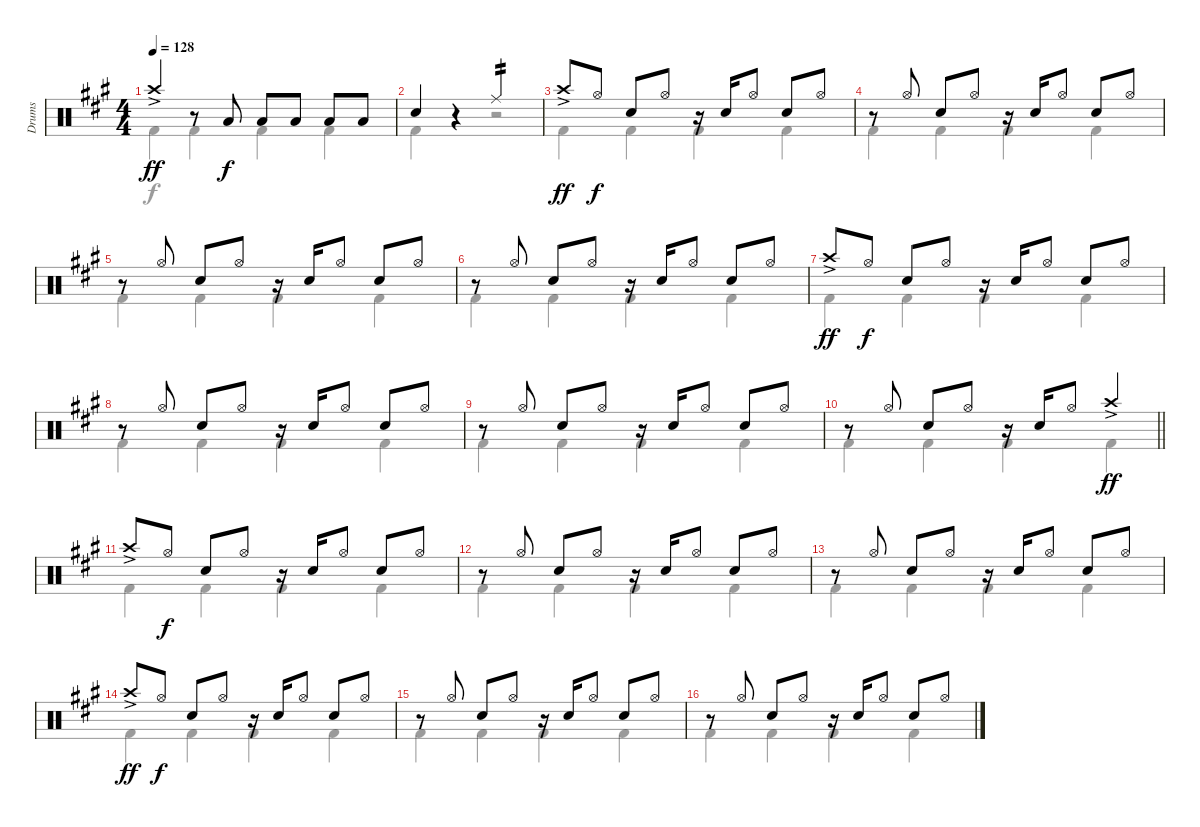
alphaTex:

\track ("Drums" "Drums") {instrument percussion}
\staff {score}
\articulation defaults
\voice
\ts (4 4)
\tempo 128
\clef neutral
\ks a "Crash high (hit)"{ac}.4{dy ff}
r.8 "Low Tom (hit)".8{dy f} "Low Tom (hit)".8 "Low Tom (hit)".8 "Low Tom (hit)".8 "Low Tom (hit)".8 |
"Snare (hit) 2".4 r.4{volume 0} "Ride (middle)".2{tp 2 volume 13} |
"Crash high (hit)"{ac}.8{dy ff} "Hi-Hat (open)".8{dy f} "Snare (hit) 2".8 "Hi-Hat (open)".8 r.16 "Snare (hit) 2".16 "Hi-Hat (open)".8 "Snare (hit) 2".8 "Hi-Hat (open)".8 |
r.8 "Hi-Hat (open)".8 "Snare (hit) 2".8 "Hi-Hat (open)".8 r.16 "Snare (hit) 2".16 "Hi-Hat (open)".8 "Snare (hit) 2".8 "Hi-Hat (open)".8 |
r.8 "Hi-Hat (open)".8 "Snare (hit) 2".8 "Hi-Hat (open)".8 r.16 "Snare (hit) 2".16 "Hi-Hat (open)".8 "Snare (hit) 2".8 "Hi-Hat (open)".8 |
r.8 "Hi-Hat (open)".8 "Snare (hit) 2".8 "Hi-Hat (open)".8 r.16 "Snare (hit) 2".16 "Hi-Hat (open)".8 "Snare (hit) 2".8 "Hi-Hat (open)".8 |
"Crash high (hit)"{ac}.8{dy ff} "Hi-Hat (open)".8{dy f} "Snare (hit) 2".8 "Hi-Hat (open)".8 r.16 "Snare (hit) 2".16 "Hi-Hat (open)".8 "Snare (hit) 2".8 "Hi-Hat (open)".8 |
r.8 "Hi-Hat (open)".8 "Snare (hit) 2".8 "Hi-Hat (open)".8 r.16 "Snare (hit) 2".16 "Hi-Hat (open)".8 "Snare (hit) 2".8 "Hi-Hat (open)".8 |
r.8 "Hi-Hat (open)".8 "Snare (hit) 2".8 "Hi-Hat (open)".8 r.16 "Snare (hit) 2".16 "Hi-Hat (open)".8 "Snare (hit) 2".8 "Hi-Hat (open)".8 |
\barLineRight lightlight
r.8 "Hi-Hat (open)".8 "Snare (hit) 2".8 "Hi-Hat (open)".8 r.16 "Snare (hit) 2".16 "Hi-Hat (open)".8 "Crash high (hit)"{ac}.4{dy ff} |
"Crash high (hit)"{ac}.8 "Hi-Hat (open)".8{dy f} "Snare (hit) 2".8 "Hi-Hat (open)".8 r.16 "Snare (hit) 2".16 "Hi-Hat (open)".8 "Snare (hit) 2".8 "Hi-Hat (open)".8 |
r.8 "Hi-Hat (open)".8 "Snare (hit) 2".8 "Hi-Hat (open)".8 r.16 "Snare (hit) 2".16 "Hi-Hat (open)".8 "Snare (hit) 2".8 "Hi-Hat (open)".8 |
r.8 "Hi-Hat (open)".8 "Snare (hit) 2".8 "Hi-Hat (open)".8 r.16 "Snare (hit) 2".16 "Hi-Hat (open)".8 "Snare (hit) 2".8 "Hi-Hat (open)".8 |
"Crash high (hit)"{ac}.8{dy ff} "Hi-Hat (open)".8{dy f} "Snare (hit) 2".8 "Hi-Hat (open)".8 r.16 "Snare (hit) 2".16 "Hi-Hat (open)".8 "Snare (hit) 2".8 "Hi-Hat (open)".8 |
r.8 "Hi-Hat (open)".8 "Snare (hit) 2".8 "Hi-Hat (open)".8 r.16 "Snare (hit) 2".16 "Hi-Hat (open)".8 "Snare (hit) 2".8 "Hi-Hat (open)".8 |
r.8 "Hi-Hat (open)".8 "Snare (hit) 2".8 "Hi-Hat (open)".8 r.16 "Snare (hit) 2".16 "Hi-Hat (open)".8 "Snare (hit) 2".8 "Hi-Hat (open)".8
\voice
\clef neutral
\ottava regular
\simile none
\ks a "Kick (hit) 2".4{dy f} "Kick (hit) 2".4 "Kick (hit) 2".4 "Kick (hit) 2".4
|
"Kick (hit) 2".4 r.4 r.2 |
"Kick (hit) 2".4 "Kick (hit) 2".4 "Kick (hit) 2".4 "Kick (hit) 2".4 |
"Kick (hit) 2".4 "Kick (hit) 2".4 "Kick (hit) 2".4 "Kick (hit) 2".4 |
"Kick (hit) 2".4 "Kick (hit) 2".4 "Kick (hit) 2".4 "Kick (hit) 2".4 |
"Kick (hit) 2".4 "Kick (hit) 2".4 "Kick (hit) 2".4 "Kick (hit) 2".4 |
"Kick (hit) 2".4 "Kick (hit) 2".4 "Kick (hit) 2".4 "Kick (hit) 2".4 |
"Kick (hit) 2".4 "Kick (hit) 2".4 "Kick (hit) 2".4 "Kick (hit) 2".4 |
"Kick (hit) 2".4 "Kick (hit) 2".4 "Kick (hit) 2".4 "Kick (hit) 2".4 |
\barLineRight lightlight "Kick (hit) 2".4 "Kick (hit) 2".4 "Kick (hit) 2".4 "Kick (hit) 2".4
|
"Kick (hit) 2".4 "Kick (hit) 2".4 "Kick (hit) 2".4 "Kick (hit) 2".4 |
"Kick (hit) 2".4 "Kick (hit) 2".4 "Kick (hit) 2".4 "Kick (hit) 2".4 |
"Kick (hit) 2".4 "Kick (hit) 2".4 "Kick (hit) 2".4 "Kick (hit) 2".4 |
"Kick (hit) 2".4 "Kick (hit) 2".4 "Kick (hit) 2".4 "Kick (hit) 2".4 |
"Kick (hit) 2".4 "Kick (hit) 2".4 "Kick (hit) 2".4 "Kick (hit) 2".4 |
"Kick (hit) 2".4 "Kick (hit) 2".4 "Kick (hit) 2".4 "Kick (hit) 2".4
